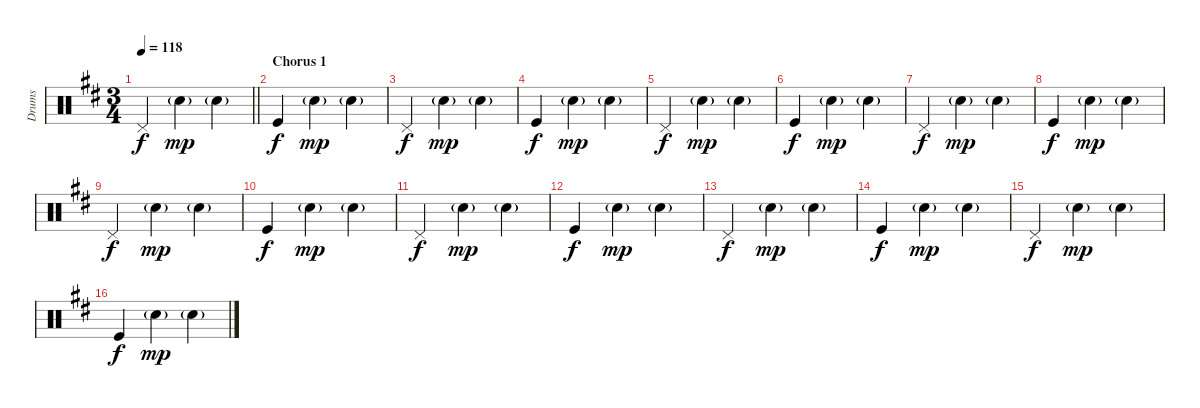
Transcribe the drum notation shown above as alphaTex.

\track ("Drums" "Drums") {instrument percussion}
\staff {score}
\articulation defaults
\ts (3 4)
\tempo 118
\clef neutral
\barLineRight lightlight
\ks d "Pedal Hi-Hat (hit)".4{dy f} "Snare (hit) 2"{g}.4{dy mp} "Snare (hit) 2"{g}.4
|
\section ("" "Chorus 1")
"Kick (hit)".4{dy f} "Snare (hit) 2"{g}.4{dy mp} "Snare (hit) 2"{g}.4 |
"Pedal Hi-Hat (hit)".4{dy f} "Snare (hit) 2"{g}.4{dy mp} "Snare (hit) 2"{g}.4 |
"Kick (hit)".4{dy f} "Snare (hit) 2"{g}.4{dy mp} "Snare (hit) 2"{g}.4 |
"Pedal Hi-Hat (hit)".4{dy f} "Snare (hit) 2"{g}.4{dy mp} "Snare (hit) 2"{g}.4 |
"Kick (hit)".4{dy f} "Snare (hit) 2"{g}.4{dy mp} "Snare (hit) 2"{g}.4 |
"Pedal Hi-Hat (hit)".4{dy f} "Snare (hit) 2"{g}.4{dy mp} "Snare (hit) 2"{g}.4 |
"Kick (hit)".4{dy f} "Snare (hit) 2"{g}.4{dy mp} "Snare (hit) 2"{g}.4 |
"Pedal Hi-Hat (hit)".4{dy f} "Snare (hit) 2"{g}.4{dy mp} "Snare (hit) 2"{g}.4 |
"Kick (hit)".4{dy f} "Snare (hit) 2"{g}.4{dy mp} "Snare (hit) 2"{g}.4 |
"Pedal Hi-Hat (hit)".4{dy f} "Snare (hit) 2"{g}.4{dy mp} "Snare (hit) 2"{g}.4 |
"Kick (hit)".4{dy f} "Snare (hit) 2"{g}.4{dy mp} "Snare (hit) 2"{g}.4 |
"Pedal Hi-Hat (hit)".4{dy f} "Snare (hit) 2"{g}.4{dy mp} "Snare (hit) 2"{g}.4 |
"Kick (hit)".4{dy f} "Snare (hit) 2"{g}.4{dy mp} "Snare (hit) 2"{g}.4 |
"Pedal Hi-Hat (hit)".4{dy f} "Snare (hit) 2"{g}.4{dy mp} "Snare (hit) 2"{g}.4 |
"Kick (hit)".4{dy f} "Snare (hit) 2"{g}.4{dy mp} "Snare (hit) 2"{g}.4
